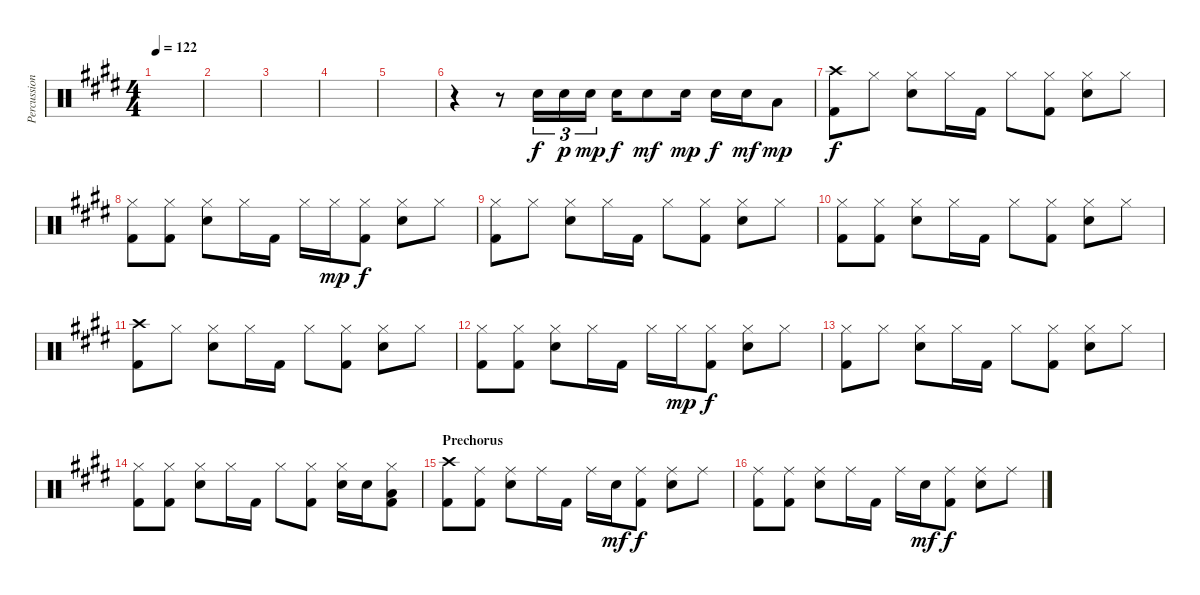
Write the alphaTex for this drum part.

\track ("Percussion" "Percussion") {instrument percussion}
\staff {score}
\articulation defaults
\ts (4 4)
\tempo 122
\clef neutral
\ks e
|
|
|
|
|
r.4 r.8 "Snare (hit) 2".16{tu (3 2)} "Snare (hit) 2".16{tu (3 2) dy p} "Snare (hit) 2".16{tu (3 2) dy mp} "Snare (hit) 2".16{dy f} "Snare (hit) 2".8{dy mf} "Snare (hit) 2".16{dy mp} "Snare (hit) 2".16{dy f} "Snare (hit) 2".16{dy mf} "Low Tom (hit)".8{dy mp} |
("Crash high (hit)" "Kick (hit) 2").8{dy f} "Hi-Hat (closed)".8 ("Hi-Hat (closed)" "Snare (hit) 2").8 "Hi-Hat (closed)".16 "Kick (hit) 2".16 "Hi-Hat (closed)".8 ("Hi-Hat (closed)" "Kick (hit) 2").8 ("Hi-Hat (closed)" "Snare (hit) 2").8 "Hi-Hat (closed)".8 |
("Hi-Hat (closed)" "Kick (hit) 2").8 ("Hi-Hat (closed)" "Kick (hit) 2").8 ("Hi-Hat (closed)" "Snare (hit) 2").8 "Hi-Hat (closed)".16 "Kick (hit) 2".16 "Hi-Hat (closed)".16 "Hi-Hat (closed)".16{dy mp} ("Hi-Hat (closed)" "Kick (hit) 2").8{dy f} ("Hi-Hat (closed)" "Snare (hit) 2").8 "Hi-Hat (closed)".8 |
("Hi-Hat (closed)" "Kick (hit) 2").8 "Hi-Hat (closed)".8 ("Hi-Hat (closed)" "Snare (hit) 2").8 "Hi-Hat (closed)".16 "Kick (hit) 2".16 "Hi-Hat (closed)".8 ("Hi-Hat (closed)" "Kick (hit) 2").8 ("Hi-Hat (closed)" "Snare (hit) 2").8 "Hi-Hat (closed)".8 |
("Hi-Hat (closed)" "Kick (hit) 2").8 ("Hi-Hat (closed)" "Kick (hit) 2").8 ("Hi-Hat (closed)" "Snare (hit) 2").8 "Hi-Hat (closed)".16 "Kick (hit) 2".16 "Hi-Hat (closed)".8 ("Hi-Hat (closed)" "Kick (hit) 2").8 ("Hi-Hat (closed)" "Snare (hit) 2").8 "Hi-Hat (closed)".8 |
("Crash high (hit)" "Kick (hit) 2").8 "Hi-Hat (closed)".8 ("Hi-Hat (closed)" "Snare (hit) 2").8 "Hi-Hat (closed)".16 "Kick (hit) 2".16 "Hi-Hat (closed)".8 ("Hi-Hat (closed)" "Kick (hit) 2").8 ("Hi-Hat (closed)" "Snare (hit) 2").8 "Hi-Hat (closed)".8 |
("Hi-Hat (closed)" "Kick (hit) 2").8 ("Hi-Hat (closed)" "Kick (hit) 2").8 ("Hi-Hat (closed)" "Snare (hit) 2").8 "Hi-Hat (closed)".16 "Kick (hit) 2".16 "Hi-Hat (closed)".16 "Hi-Hat (closed)".16{dy mp} ("Hi-Hat (closed)" "Kick (hit) 2").8{dy f} ("Hi-Hat (closed)" "Snare (hit) 2").8 "Hi-Hat (closed)".8 |
("Hi-Hat (closed)" "Kick (hit) 2").8 "Hi-Hat (closed)".8 ("Hi-Hat (closed)" "Snare (hit) 2").8 "Hi-Hat (closed)".16 "Kick (hit) 2".16 "Hi-Hat (closed)".8 ("Hi-Hat (closed)" "Kick (hit) 2").8 ("Hi-Hat (closed)" "Snare (hit) 2").8 "Hi-Hat (closed)".8 |
("Hi-Hat (closed)" "Kick (hit) 2").8 ("Hi-Hat (closed)" "Kick (hit) 2").8 ("Hi-Hat (closed)" "Snare (hit) 2").8 "Hi-Hat (closed)".16 "Kick (hit) 2".16 "Hi-Hat (closed)".8 ("Hi-Hat (closed)" "Kick (hit) 2").8 ("Hi-Hat (closed)" "Snare (hit) 2").16 "Snare (hit) 2".16 ("Hi-Hat (closed)" "Low Tom (hit)" "Kick (hit) 2").8 |
\section ("" "Prechorus")
("Crash high (hit)" "Kick (hit) 2").8 ("Ride (middle)" "Kick (hit) 2").8 ("Ride (middle)" "Snare (hit) 2").8 "Ride (middle)".16 "Kick (hit) 2".16 "Ride (middle)".16 "Snare (hit) 2".16{dy mf} ("Ride (middle)" "Kick (hit) 2").8{dy f} ("Ride (middle)" "Snare (hit) 2").8 "Ride (middle)".8 |
("Ride (middle)" "Kick (hit) 2").8 ("Ride (middle)" "Kick (hit) 2").8 ("Ride (middle)" "Snare (hit) 2").8 "Ride (middle)".16 "Kick (hit) 2".16 "Ride (middle)".16 "Snare (hit) 2".16{dy mf} ("Ride (middle)" "Kick (hit) 2").8{dy f} ("Ride (middle)" "Snare (hit) 2").8 "Ride (middle)".8
